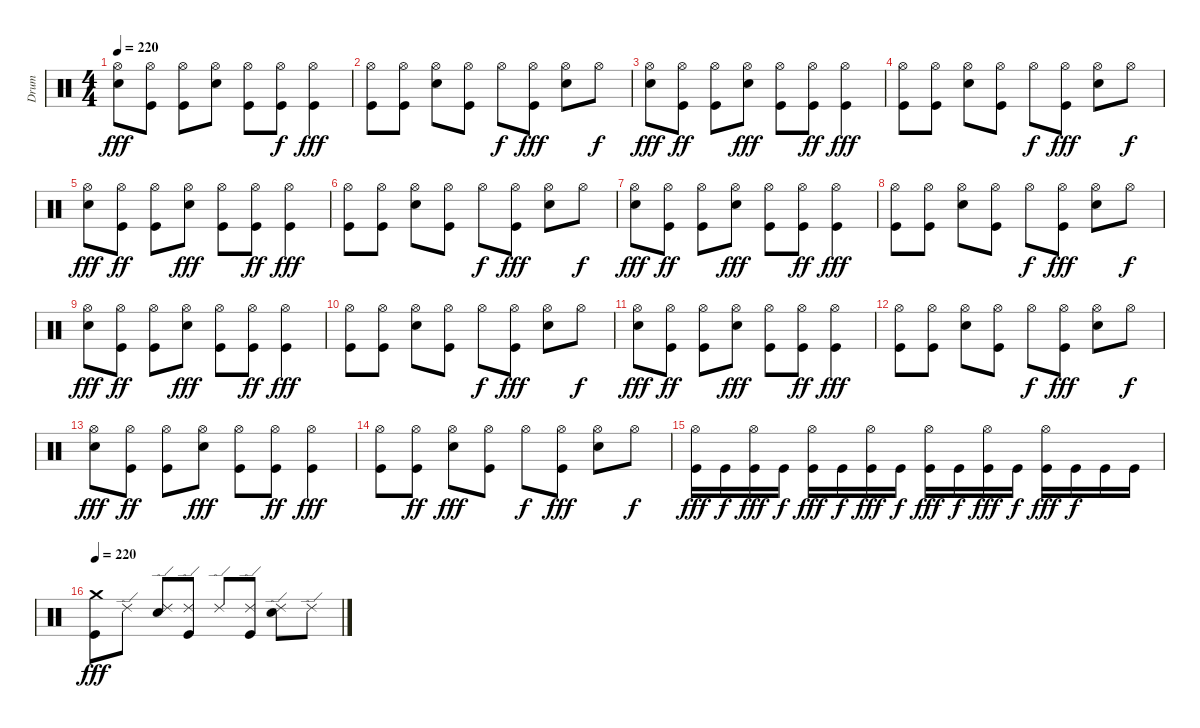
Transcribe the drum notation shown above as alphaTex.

\track ("Drum" "Drum") {instrument percussion}
\staff {score}
\articulation defaults
\ts (4 4)
\tempo 220
\clef neutral
\ks c
("Hi-Hat (open)" "Snare (hit) 2").8{dy fff} ("Hi-Hat (open)" "Kick (hit)").8 ("Hi-Hat (open)" "Kick (hit)").8 ("Hi-Hat (open)" "Snare (hit) 2").8 ("Hi-Hat (open)" "Kick (hit)").8 ("Hi-Hat (open)" "Kick (hit)").8{dy f} ("Hi-Hat (open)" "Kick (hit)").4{dy fff} |
("Hi-Hat (open)" "Kick (hit)").8 ("Hi-Hat (open)" "Kick (hit)").8 ("Hi-Hat (open)" "Snare (hit) 2").8 ("Hi-Hat (open)" "Kick (hit)").8 "Hi-Hat (open)".8{dy f} ("Hi-Hat (open)" "Kick (hit)").8{dy fff} ("Hi-Hat (open)" "Snare (hit) 2").8 "Hi-Hat (open)".8{dy f} |
("Hi-Hat (open)" "Snare (hit) 2").8{dy fff} ("Hi-Hat (open)" "Kick (hit)").8{dy ff} ("Hi-Hat (open)" "Kick (hit)").8 ("Hi-Hat (open)" "Snare (hit) 2").8{dy fff} ("Hi-Hat (open)" "Kick (hit)").8 ("Hi-Hat (open)" "Kick (hit)").8{dy ff} ("Hi-Hat (open)" "Kick (hit)").4{dy fff} |
("Hi-Hat (open)" "Kick (hit)").8 ("Hi-Hat (open)" "Kick (hit)").8 ("Hi-Hat (open)" "Snare (hit) 2").8 ("Hi-Hat (open)" "Kick (hit)").8 "Hi-Hat (open)".8{dy f} ("Hi-Hat (open)" "Kick (hit)").8{dy fff} ("Hi-Hat (open)" "Snare (hit) 2").8 "Hi-Hat (open)".8{dy f} |
("Hi-Hat (open)" "Snare (hit) 2").8{dy fff} ("Hi-Hat (open)" "Kick (hit)").8{dy ff} ("Hi-Hat (open)" "Kick (hit)").8 ("Hi-Hat (open)" "Snare (hit) 2").8{dy fff} ("Hi-Hat (open)" "Kick (hit)").8 ("Hi-Hat (open)" "Kick (hit)").8{dy ff} ("Hi-Hat (open)" "Kick (hit)").4{dy fff} |
("Hi-Hat (open)" "Kick (hit)").8 ("Hi-Hat (open)" "Kick (hit)").8 ("Hi-Hat (open)" "Snare (hit) 2").8 ("Hi-Hat (open)" "Kick (hit)").8 "Hi-Hat (open)".8{dy f} ("Hi-Hat (open)" "Kick (hit)").8{dy fff} ("Hi-Hat (open)" "Snare (hit) 2").8 "Hi-Hat (open)".8{dy f} |
("Hi-Hat (open)" "Snare (hit) 2").8{dy fff} ("Hi-Hat (open)" "Kick (hit)").8{dy ff} ("Hi-Hat (open)" "Kick (hit)").8 ("Hi-Hat (open)" "Snare (hit) 2").8{dy fff} ("Hi-Hat (open)" "Kick (hit)").8 ("Hi-Hat (open)" "Kick (hit)").8{dy ff} ("Hi-Hat (open)" "Kick (hit)").4{dy fff} |
("Hi-Hat (open)" "Kick (hit)").8 ("Hi-Hat (open)" "Kick (hit)").8 ("Hi-Hat (open)" "Snare (hit) 2").8 ("Hi-Hat (open)" "Kick (hit)").8 "Hi-Hat (open)".8{dy f} ("Hi-Hat (open)" "Kick (hit)").8{dy fff} ("Hi-Hat (open)" "Snare (hit) 2").8 "Hi-Hat (open)".8{dy f} |
("Hi-Hat (open)" "Snare (hit) 2").8{dy fff} ("Hi-Hat (open)" "Kick (hit)").8{dy ff} ("Hi-Hat (open)" "Kick (hit)").8 ("Hi-Hat (open)" "Snare (hit) 2").8{dy fff} ("Hi-Hat (open)" "Kick (hit)").8 ("Hi-Hat (open)" "Kick (hit)").8{dy ff} ("Hi-Hat (open)" "Kick (hit)").4{dy fff} |
("Hi-Hat (open)" "Kick (hit)").8 ("Hi-Hat (open)" "Kick (hit)").8 ("Hi-Hat (open)" "Snare (hit) 2").8 ("Hi-Hat (open)" "Kick (hit)").8 "Hi-Hat (open)".8{dy f} ("Hi-Hat (open)" "Kick (hit)").8{dy fff} ("Hi-Hat (open)" "Snare (hit) 2").8 "Hi-Hat (open)".8{dy f} |
("Hi-Hat (open)" "Snare (hit) 2").8{dy fff} ("Hi-Hat (open)" "Kick (hit)").8{dy ff} ("Hi-Hat (open)" "Kick (hit)").8 ("Hi-Hat (open)" "Snare (hit) 2").8{dy fff} ("Hi-Hat (open)" "Kick (hit)").8 ("Hi-Hat (open)" "Kick (hit)").8{dy ff} ("Hi-Hat (open)" "Kick (hit)").4{dy fff} |
("Hi-Hat (open)" "Kick (hit)").8 ("Hi-Hat (open)" "Kick (hit)").8 ("Hi-Hat (open)" "Snare (hit) 2").8 ("Hi-Hat (open)" "Kick (hit)").8 "Hi-Hat (open)".8{dy f} ("Hi-Hat (open)" "Kick (hit)").8{dy fff} ("Hi-Hat (open)" "Snare (hit) 2").8 "Hi-Hat (open)".8{dy f} |
("Hi-Hat (open)" "Snare (hit) 2").8{dy fff} ("Hi-Hat (open)" "Kick (hit)").8{dy ff} ("Hi-Hat (open)" "Kick (hit)").8 ("Hi-Hat (open)" "Snare (hit) 2").8{dy fff} ("Hi-Hat (open)" "Kick (hit)").8 ("Hi-Hat (open)" "Kick (hit)").8{dy ff} ("Hi-Hat (open)" "Kick (hit)").4{dy fff} |
("Hi-Hat (open)" "Kick (hit)").8 ("Hi-Hat (open)" "Kick (hit)").8{dy ff} ("Hi-Hat (open)" "Snare (hit) 2").8{dy fff} ("Hi-Hat (open)" "Kick (hit)").8 "Hi-Hat (open)".8{dy f} ("Hi-Hat (open)" "Kick (hit)").8{dy fff} ("Hi-Hat (open)" "Snare (hit) 2").8 "Hi-Hat (open)".8{dy f} |
("Hi-Hat (open)" "Kick (hit)").16{dy fff} "Kick (hit)".16{dy f} ("Hi-Hat (open)" "Kick (hit)").16{dy fff} "Kick (hit)".16{dy f} ("Hi-Hat (open)" "Kick (hit)").16{dy fff} "Kick (hit)".16{dy f} ("Hi-Hat (open)" "Kick (hit)").16{dy fff} "Kick (hit)".16{dy f} ("Hi-Hat (open)" "Kick (hit)").16{dy fff} "Kick (hit)".16{dy f} ("Hi-Hat (open)" "Kick (hit)").16{dy fff} "Kick (hit)".16{dy f} ("Hi-Hat (open)" "Kick (hit)").16{dy fff} "Kick (hit)".16{dy f} "Kick (hit)".16 "Kick (hit)".16 |
\tempo 220
("Crash medium (hit)" "Kick (hit)").8{dy fff} "Ride (edge) 2".8 ("Ride (edge) 2" "Snare (hit) 2").8 ("Ride (edge) 2" "Kick (hit)").8 "Ride (edge) 2".8 ("Ride (edge) 2" "Kick (hit)").8 ("Ride (edge) 2" "Snare (hit) 2").8 "Ride (edge) 2".8
